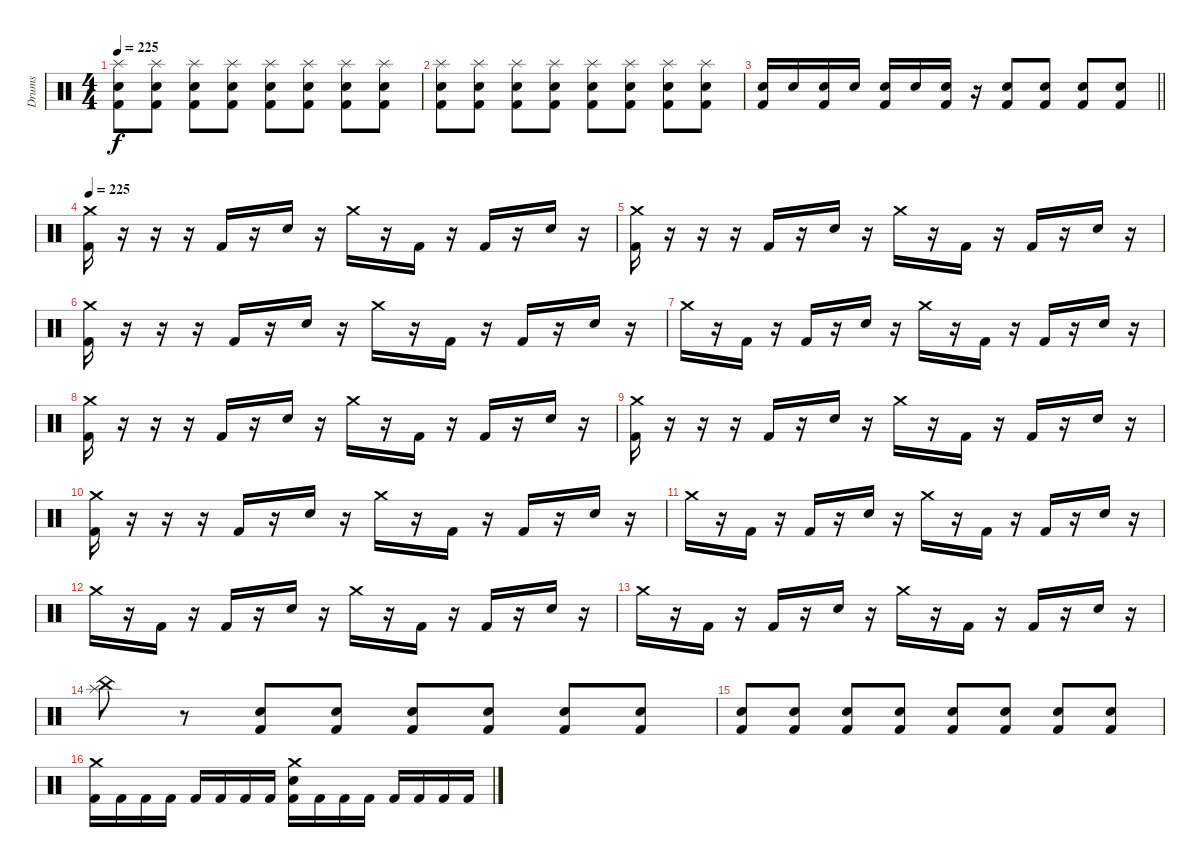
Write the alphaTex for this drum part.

\track ("Drums" "Drums") {instrument percussion}
\staff {score}
\articulation defaults
\ts (4 4)
\tempo 225
\clef neutral
\ks c
("Splash (hit)" "Snare (hit) 2" "Kick (hit) 2").8{dy f} ("Splash (hit)" "Snare (hit) 2" "Kick (hit) 2").8 ("Splash (hit)" "Snare (hit) 2" "Kick (hit) 2").8 ("Splash (hit)" "Snare (hit) 2" "Kick (hit) 2").8 ("Splash (hit)" "Snare (hit) 2" "Kick (hit) 2").8 ("Splash (hit)" "Snare (hit) 2" "Kick (hit) 2").8 ("Splash (hit)" "Snare (hit) 2" "Kick (hit) 2").8 ("Splash (hit)" "Snare (hit) 2" "Kick (hit) 2").8 |
("Splash (hit)" "Snare (hit) 2" "Kick (hit) 2").8 ("Splash (hit)" "Snare (hit) 2" "Kick (hit) 2").8 ("Splash (hit)" "Snare (hit) 2" "Kick (hit) 2").8 ("Splash (hit)" "Snare (hit) 2" "Kick (hit) 2").8 ("Splash (hit)" "Snare (hit) 2" "Kick (hit) 2").8 ("Splash (hit)" "Snare (hit) 2" "Kick (hit) 2").8 ("Splash (hit)" "Snare (hit) 2" "Kick (hit) 2").8 ("Splash (hit)" "Snare (hit) 2" "Kick (hit) 2").8 |
\barLineRight lightlight
("Snare (hit) 2" "Kick (hit) 2").16 "Snare (hit) 2".16 ("Snare (hit) 2" "Kick (hit) 2").16 "Snare (hit) 2".16 ("Snare (hit) 2" "Kick (hit) 2").16 "Snare (hit) 2".16 ("Snare (hit) 2" "Kick (hit) 2").16 r.16 ("Snare (hit) 2" "Kick (hit) 2").8 ("Snare (hit) 2" "Kick (hit) 2").8 ("Snare (hit) 2" "Kick (hit) 2").8 ("Snare (hit) 2" "Kick (hit) 2").8 |
\tempo 210
\tempo 225
("Crash medium (hit)" "Kick (hit) 2").16 r.16 r.16 r.16 "Kick (hit) 2".16 r.16 "Snare (hit) 2".16 r.16 "Crash medium (hit)".16 r.16 "Kick (hit) 2".16 r.16 "Kick (hit) 2".16 r.16 "Snare (hit) 2".16 r.16 |
("Crash medium (hit)" "Kick (hit) 2").16 r.16 r.16 r.16 "Kick (hit) 2".16 r.16 "Snare (hit) 2".16 r.16 "Crash medium (hit)".16 r.16 "Kick (hit) 2".16 r.16 "Kick (hit) 2".16 r.16 "Snare (hit) 2".16 r.16 |
("Crash medium (hit)" "Kick (hit) 2").16 r.16 r.16 r.16 "Kick (hit) 2".16 r.16 "Snare (hit) 2".16 r.16 "Crash medium (hit)".16 r.16 "Kick (hit) 2".16 r.16 "Kick (hit) 2".16 r.16 "Snare (hit) 2".16 r.16 |
"Crash medium (hit)".16 r.16 "Kick (hit) 2".16 r.16 "Kick (hit) 2".16 r.16 "Snare (hit) 2".16 r.16 "Crash medium (hit)".16 r.16 "Kick (hit) 2".16 r.16 "Kick (hit) 2".16 r.16 "Snare (hit) 2".16 r.16 |
("Crash medium (hit)" "Kick (hit) 2").16 r.16 r.16 r.16 "Kick (hit) 2".16 r.16 "Snare (hit) 2".16 r.16 "Crash medium (hit)".16 r.16 "Kick (hit) 2".16 r.16 "Kick (hit) 2".16 r.16 "Snare (hit) 2".16 r.16 |
("Crash medium (hit)" "Kick (hit) 2").16 r.16 r.16 r.16 "Kick (hit) 2".16 r.16 "Snare (hit) 2".16 r.16 "Crash medium (hit)".16 r.16 "Kick (hit) 2".16 r.16 "Kick (hit) 2".16 r.16 "Snare (hit) 2".16 r.16 |
("Crash medium (hit)" "Kick (hit) 2").16 r.16 r.16 r.16 "Kick (hit) 2".16 r.16 "Snare (hit) 2".16 r.16 "Crash medium (hit)".16 r.16 "Kick (hit) 2".16 r.16 "Kick (hit) 2".16 r.16 "Snare (hit) 2".16 r.16 |
"Crash medium (hit)".16 r.16 "Kick (hit) 2".16 r.16 "Kick (hit) 2".16 r.16 "Snare (hit) 2".16 r.16 "Crash medium (hit)".16 r.16 "Kick (hit) 2".16 r.16 "Kick (hit) 2".16 r.16 "Snare (hit) 2".16 r.16 |
"Crash medium (hit)".16 r.16 "Kick (hit) 2".16 r.16 "Kick (hit) 2".16 r.16 "Snare (hit) 2".16 r.16 "Crash medium (hit)".16 r.16 "Kick (hit) 2".16 r.16 "Kick (hit) 2".16 r.16 "Snare (hit) 2".16 r.16 |
"Crash medium (hit)".16 r.16 "Kick (hit) 2".16 r.16 "Kick (hit) 2".16 r.16 "Snare (hit) 2".16 r.16 "Crash medium (hit)".16 r.16 "Kick (hit) 2".16 r.16 "Kick (hit) 2".16 r.16 "Snare (hit) 2".16 r.16 |
("China (hit)" "Splash (hit)").8 r.8 ("Snare (hit) 2" "Kick (hit) 2").8 ("Snare (hit) 2" "Kick (hit) 2").8 ("Snare (hit) 2" "Kick (hit) 2").8 ("Snare (hit) 2" "Kick (hit) 2").8 ("Snare (hit) 2" "Kick (hit) 2").8 ("Snare (hit) 2" "Kick (hit) 2").8 |
("Snare (hit) 2" "Kick (hit) 2").8 ("Snare (hit) 2" "Kick (hit) 2").8 ("Snare (hit) 2" "Kick (hit) 2").8 ("Snare (hit) 2" "Kick (hit) 2").8 ("Snare (hit) 2" "Kick (hit) 2").8 ("Snare (hit) 2" "Kick (hit) 2").8 ("Snare (hit) 2" "Kick (hit) 2").8 ("Snare (hit) 2" "Kick (hit) 2").8 |
("Crash medium (hit)" "Kick (hit) 2").16 "Kick (hit) 2".16 "Kick (hit) 2".16 "Kick (hit) 2".16 "Kick (hit) 2".16 "Kick (hit) 2".16 "Kick (hit) 2".16 "Kick (hit) 2".16 ("Crash medium (hit)" "Snare (hit) 2" "Kick (hit) 2").16 "Kick (hit) 2".16 "Kick (hit) 2".16 "Kick (hit) 2".16 "Kick (hit) 2".16 "Kick (hit) 2".16 "Kick (hit) 2".16 "Kick (hit) 2".16
